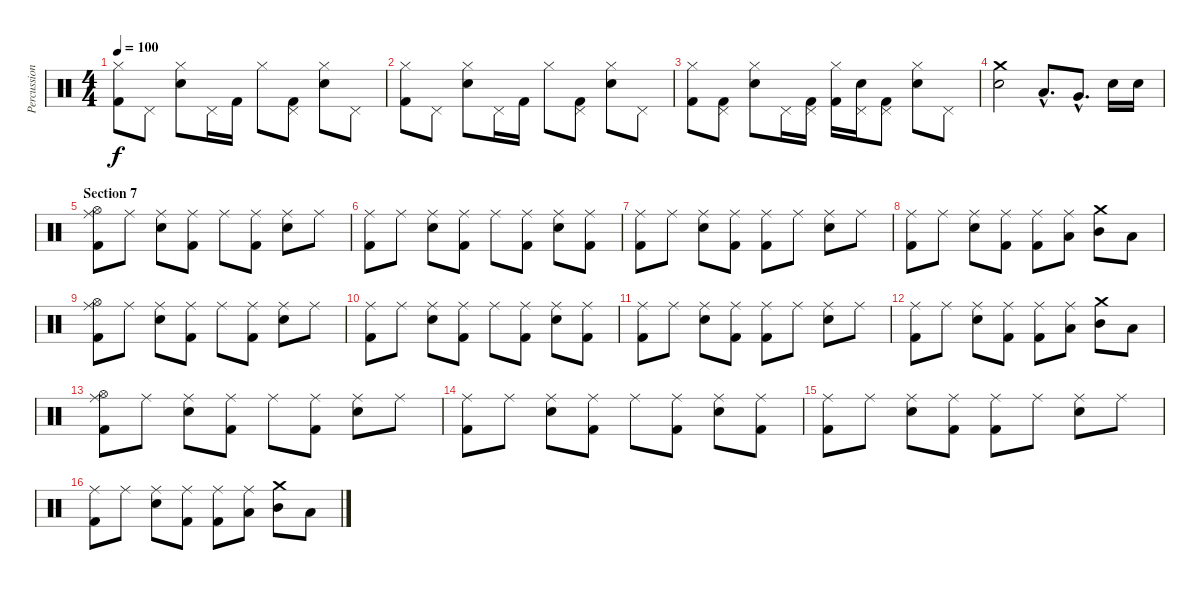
\track ("Percussion" "Percussion") {instrument percussion}
\staff {score}
\articulation defaults
\ts (4 4)
\tempo 100
\clef neutral
\ks c
("Hi-Hat (closed)" "Kick (hit) 2").8{dy f} "Pedal Hi-Hat (hit)".8 ("Hi-Hat (closed)" "Electric Snare (hit)").8 "Pedal Hi-Hat (hit)".16 "Kick (hit) 2".16 "Hi-Hat (closed)".8 ("Pedal Hi-Hat (hit)" "Kick (hit) 2").8 ("Hi-Hat (closed)" "Electric Snare (hit)").8 "Pedal Hi-Hat (hit)".8 |
("Hi-Hat (closed)" "Kick (hit) 2").8 "Pedal Hi-Hat (hit)".8 ("Hi-Hat (closed)" "Electric Snare (hit)").8 "Pedal Hi-Hat (hit)".16 "Kick (hit) 2".16 "Hi-Hat (closed)".8 ("Pedal Hi-Hat (hit)" "Kick (hit) 2").8 ("Hi-Hat (closed)" "Electric Snare (hit)").8 "Pedal Hi-Hat (hit)".8 |
("Hi-Hat (closed)" "Kick (hit) 2").8 ("Pedal Hi-Hat (hit)" "Kick (hit) 2").8 ("Hi-Hat (closed)" "Electric Snare (hit)").8 "Pedal Hi-Hat (hit)".16 ("Pedal Hi-Hat (hit)" "Kick (hit) 2").16 ("Hi-Hat (closed)" "Kick (hit) 2").16 ("Pedal Hi-Hat (hit)" "Electric Snare (hit)").16 ("Pedal Hi-Hat (hit)" "Kick (hit) 2").8 ("Hi-Hat (closed)" "Electric Snare (hit)").8 "Pedal Hi-Hat (hit)".8 |
("Crash medium (hit)" "Electric Snare (hit)").2 "Low Tom (hit)"{hac}.8{d} "Very Low Tom (hit)"{hac}.8{d} "Electric Snare (hit)".16 "Electric Snare (hit)".16 |
\section ("" "Section 7")
("Hi-Hat (open)" "Ride (middle)" "Kick (hit) 2").8 "Ride (middle)".8 ("Ride (middle)" "Electric Snare (hit)").8 ("Ride (middle)" "Kick (hit) 2").8 "Ride (middle)".8 ("Ride (middle)" "Kick (hit) 2").8 ("Ride (middle)" "Electric Snare (hit)").8 "Ride (middle)".8 |
("Ride (middle)" "Kick (hit) 2").8 "Ride (middle)".8 ("Ride (middle)" "Electric Snare (hit)").8 ("Ride (middle)" "Kick (hit) 2").8 "Ride (middle)".8 ("Ride (middle)" "Kick (hit) 2").8 ("Ride (middle)" "Electric Snare (hit)").8 ("Ride (middle)" "Kick (hit) 2").8 |
("Ride (middle)" "Kick (hit) 2").8 "Ride (middle)".8 ("Ride (middle)" "Electric Snare (hit)").8 ("Ride (middle)" "Kick (hit) 2").8 ("Ride (middle)" "Kick (hit) 2").8 "Ride (middle)".8 ("Ride (middle)" "Electric Snare (hit)").8 "Ride (middle)".8 |
("Ride (middle)" "Kick (hit) 2").8 "Ride (middle)".8 ("Ride (middle)" "Electric Snare (hit)").8 ("Ride (middle)" "Kick (hit) 2").8 ("Ride (middle)" "Kick (hit) 2").8 ("Ride (middle)" "Low Tom (hit)").8 ("Crash medium (hit)" "Mid Tom (hit)").8 "Low Tom (hit)".8 |
("Hi-Hat (open)" "Ride (middle)" "Kick (hit) 2").8 "Ride (middle)".8 ("Ride (middle)" "Electric Snare (hit)").8 ("Ride (middle)" "Kick (hit) 2").8 "Ride (middle)".8 ("Ride (middle)" "Kick (hit) 2").8 ("Ride (middle)" "Electric Snare (hit)").8 "Ride (middle)".8 |
("Ride (middle)" "Kick (hit) 2").8 "Ride (middle)".8 ("Ride (middle)" "Electric Snare (hit)").8 ("Ride (middle)" "Kick (hit) 2").8 "Ride (middle)".8 ("Ride (middle)" "Kick (hit) 2").8 ("Ride (middle)" "Electric Snare (hit)").8 ("Ride (middle)" "Kick (hit) 2").8 |
("Ride (middle)" "Kick (hit) 2").8 "Ride (middle)".8 ("Ride (middle)" "Electric Snare (hit)").8 ("Ride (middle)" "Kick (hit) 2").8 ("Ride (middle)" "Kick (hit) 2").8 "Ride (middle)".8 ("Ride (middle)" "Electric Snare (hit)").8 "Ride (middle)".8 |
("Ride (middle)" "Kick (hit) 2").8 "Ride (middle)".8 ("Ride (middle)" "Electric Snare (hit)").8 ("Ride (middle)" "Kick (hit) 2").8 ("Ride (middle)" "Kick (hit) 2").8 ("Ride (middle)" "Low Tom (hit)").8 ("Crash medium (hit)" "Mid Tom (hit)").8 "Low Tom (hit)".8 |
("Hi-Hat (open)" "Ride (middle)" "Kick (hit) 2").8 "Ride (middle)".8 ("Ride (middle)" "Electric Snare (hit)").8 ("Ride (middle)" "Kick (hit) 2").8 "Ride (middle)".8 ("Ride (middle)" "Kick (hit) 2").8 ("Ride (middle)" "Electric Snare (hit)").8 "Ride (middle)".8 |
("Ride (middle)" "Kick (hit) 2").8 "Ride (middle)".8 ("Ride (middle)" "Electric Snare (hit)").8 ("Ride (middle)" "Kick (hit) 2").8 "Ride (middle)".8 ("Ride (middle)" "Kick (hit) 2").8 ("Ride (middle)" "Electric Snare (hit)").8 ("Ride (middle)" "Kick (hit) 2").8 |
("Ride (middle)" "Kick (hit) 2").8 "Ride (middle)".8 ("Ride (middle)" "Electric Snare (hit)").8 ("Ride (middle)" "Kick (hit) 2").8 ("Ride (middle)" "Kick (hit) 2").8 "Ride (middle)".8 ("Ride (middle)" "Electric Snare (hit)").8 "Ride (middle)".8 |
("Ride (middle)" "Kick (hit) 2").8 "Ride (middle)".8 ("Ride (middle)" "Electric Snare (hit)").8 ("Ride (middle)" "Kick (hit) 2").8 ("Ride (middle)" "Kick (hit) 2").8 ("Ride (middle)" "Low Tom (hit)").8 ("Crash medium (hit)" "Mid Tom (hit)").8 "Low Tom (hit)".8
